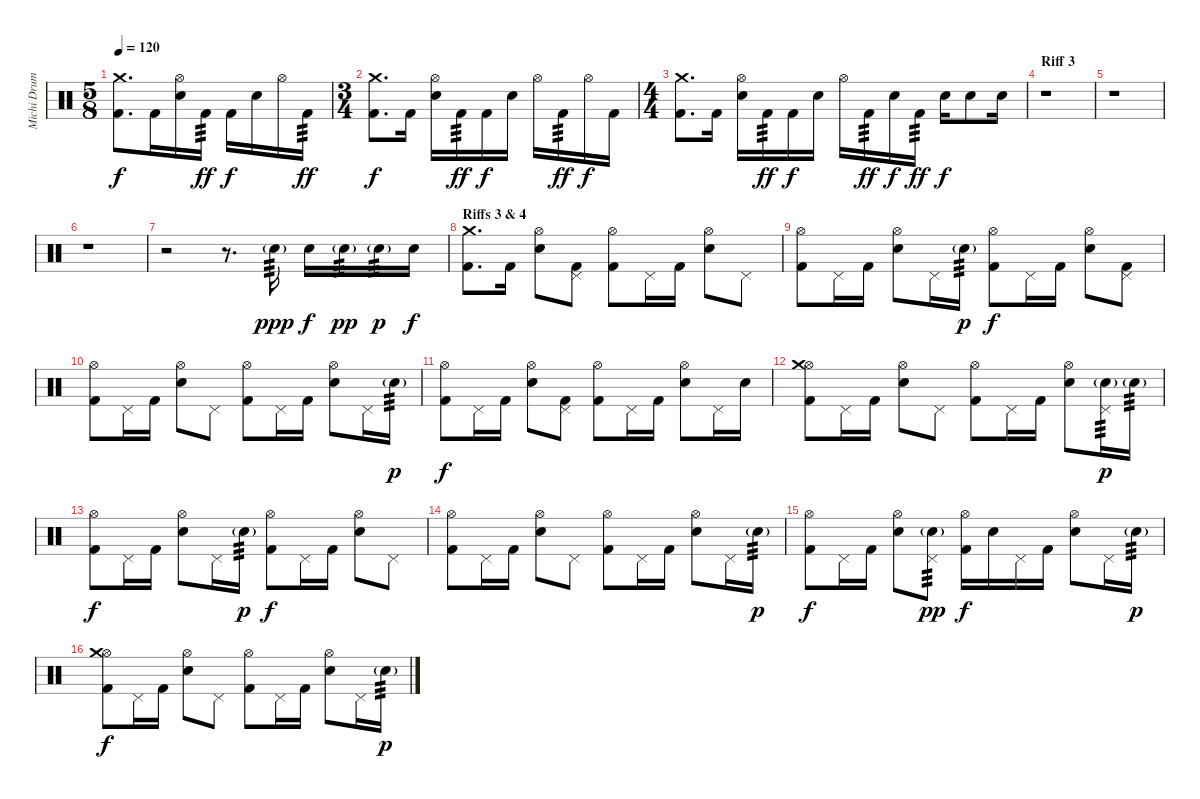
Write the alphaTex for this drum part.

\track ("Michi Drums" "Michi Drum") {instrument percussion}
\staff {score}
\articulation defaults
\ts (5 8)
\tempo 120
\clef neutral
\ks c
("Crash medium (hit)" "Kick (hit) 2").8{d dy f} "Kick (hit) 2".16 ("Hi-Hat (open)" "Electric Snare (hit)").16 "Kick (hit) 2".16{tp 3 dy ff} "Kick (hit) 2".16{dy f} "Electric Snare (hit)".16 "Hi-Hat (open)".16 "Kick (hit) 2".16{tp 3 dy ff} |
\ts (3 4)
("Crash medium (hit)" "Kick (hit) 2").8{d dy f} "Kick (hit) 2".16 ("Hi-Hat (open)" "Electric Snare (hit)").16 "Kick (hit) 2".16{tp 3 dy ff} "Kick (hit) 2".16{dy f} "Electric Snare (hit)".16 "Hi-Hat (open)".16 "Kick (hit) 2".16{tp 3 dy ff} "Hi-Hat (open)".16{dy f} "Kick (hit) 2".16 |
\ts (4 4)
("Crash medium (hit)" "Kick (hit) 2").8{d} "Kick (hit) 2".16 ("Hi-Hat (open)" "Electric Snare (hit)").16 "Kick (hit) 2".16{tp 3 dy ff} "Kick (hit) 2".16{dy f} "Electric Snare (hit)".16 "Hi-Hat (open)".16 "Kick (hit) 2".16{tp 3 dy ff} "Electric Snare (hit)".16{dy f} "Kick (hit) 2".16{tp 3 dy ff} "Electric Snare (hit)".16{dy f} "Electric Snare (hit)".8 "Electric Snare (hit)".16 |
\section ("" "Riff 3")
r.1 |
r.1 |
r.1 |
r.2 r.8{d} "Electric Snare (hit)"{g}.16{tp 3 dy ppp} "Electric Snare (hit)".16{dy f} "Electric Snare (hit)"{g}.16{tp 3 dy pp} "Electric Snare (hit)"{g}.16{tp 3 dy p} "Electric Snare (hit)".16{dy f} |
\section ("" "Riffs 3 & 4")
("Crash medium (hit)" "Kick (hit) 2").8{d} "Kick (hit) 2".16 ("Hi-Hat (open)" "Electric Snare (hit)").8 ("Pedal Hi-Hat (hit)" "Kick (hit) 2").8 ("Hi-Hat (open)" "Kick (hit) 2").8 "Pedal Hi-Hat (hit)".16 "Kick (hit) 2".16 ("Hi-Hat (open)" "Electric Snare (hit)").8 "Pedal Hi-Hat (hit)".8 |
("Hi-Hat (open)" "Kick (hit) 2").8 "Pedal Hi-Hat (hit)".16 "Kick (hit) 2".16 ("Hi-Hat (open)" "Electric Snare (hit)").8 "Pedal Hi-Hat (hit)".16 "Electric Snare (hit)"{g}.16{tp 3 dy p} ("Hi-Hat (open)" "Kick (hit) 2").8{dy f} "Pedal Hi-Hat (hit)".16 "Kick (hit) 2".16 ("Hi-Hat (open)" "Electric Snare (hit)").8 ("Pedal Hi-Hat (hit)" "Kick (hit) 2").8 |
("Hi-Hat (open)" "Kick (hit) 2").8 "Pedal Hi-Hat (hit)".16 "Kick (hit) 2".16 ("Hi-Hat (open)" "Electric Snare (hit)").8 "Pedal Hi-Hat (hit)".8 ("Hi-Hat (open)" "Kick (hit) 2").8 "Pedal Hi-Hat (hit)".16 "Kick (hit) 2".16 ("Hi-Hat (open)" "Electric Snare (hit)").8 "Pedal Hi-Hat (hit)".16 "Electric Snare (hit)"{g}.16{tp 3 dy p} |
("Hi-Hat (open)" "Kick (hit) 2").8{dy f} "Pedal Hi-Hat (hit)".16 "Kick (hit) 2".16 ("Hi-Hat (open)" "Electric Snare (hit)").8 ("Pedal Hi-Hat (hit)" "Kick (hit) 2").8 ("Hi-Hat (open)" "Kick (hit) 2").8 "Pedal Hi-Hat (hit)".16 "Kick (hit) 2".16 ("Hi-Hat (open)" "Electric Snare (hit)").8 "Pedal Hi-Hat (hit)".16 "Electric Snare (hit)".16 |
("Hi-Hat (open)" "Crash medium (hit)" "Kick (hit) 2").8 "Pedal Hi-Hat (hit)".16 "Kick (hit) 2".16 ("Hi-Hat (open)" "Electric Snare (hit)").8 "Pedal Hi-Hat (hit)".8 ("Hi-Hat (open)" "Kick (hit) 2").8 "Pedal Hi-Hat (hit)".16 "Kick (hit) 2".16 ("Hi-Hat (open)" "Electric Snare (hit)").8 ("Pedal Hi-Hat (hit)" "Electric Snare (hit)"{g}).16{tp 3 dy p} "Electric Snare (hit)"{g}.16{tp 3} |
("Hi-Hat (open)" "Kick (hit) 2").8{dy f} "Pedal Hi-Hat (hit)".16 "Kick (hit) 2".16 ("Hi-Hat (open)" "Electric Snare (hit)").8 "Pedal Hi-Hat (hit)".16 "Electric Snare (hit)"{g}.16{tp 3 dy p} ("Hi-Hat (open)" "Kick (hit) 2").8{dy f} "Pedal Hi-Hat (hit)".16 "Kick (hit) 2".16 ("Hi-Hat (open)" "Electric Snare (hit)").8 "Pedal Hi-Hat (hit)".8 |
("Hi-Hat (open)" "Kick (hit) 2").8 "Pedal Hi-Hat (hit)".16 "Kick (hit) 2".16 ("Hi-Hat (open)" "Electric Snare (hit)").8 "Pedal Hi-Hat (hit)".8 ("Hi-Hat (open)" "Kick (hit) 2").8 "Pedal Hi-Hat (hit)".16 "Kick (hit) 2".16 ("Hi-Hat (open)" "Electric Snare (hit)").8 "Pedal Hi-Hat (hit)".16 "Electric Snare (hit)"{g}.16{tp 3 dy p} |
("Hi-Hat (open)" "Kick (hit) 2").8{dy f} "Pedal Hi-Hat (hit)".16 "Kick (hit) 2".16 ("Hi-Hat (open)" "Electric Snare (hit)").8 ("Pedal Hi-Hat (hit)" "Electric Snare (hit)"{g}).8{tp 3 dy pp} ("Hi-Hat (open)" "Kick (hit) 2").16{dy f} "Electric Snare (hit)".16 "Pedal Hi-Hat (hit)".16 "Kick (hit) 2".16 ("Hi-Hat (open)" "Electric Snare (hit)").8 "Pedal Hi-Hat (hit)".16 "Electric Snare (hit)"{g}.16{tp 3 dy p} |
("Hi-Hat (open)" "Crash medium (hit)" "Kick (hit) 2").8{dy f} "Pedal Hi-Hat (hit)".16 "Kick (hit) 2".16 ("Hi-Hat (open)" "Electric Snare (hit)").8 "Pedal Hi-Hat (hit)".8 ("Hi-Hat (open)" "Kick (hit) 2").8 "Pedal Hi-Hat (hit)".16 "Kick (hit) 2".16 ("Hi-Hat (open)" "Electric Snare (hit)").8 "Pedal Hi-Hat (hit)".16 "Electric Snare (hit)"{g}.16{tp 3 dy p}
